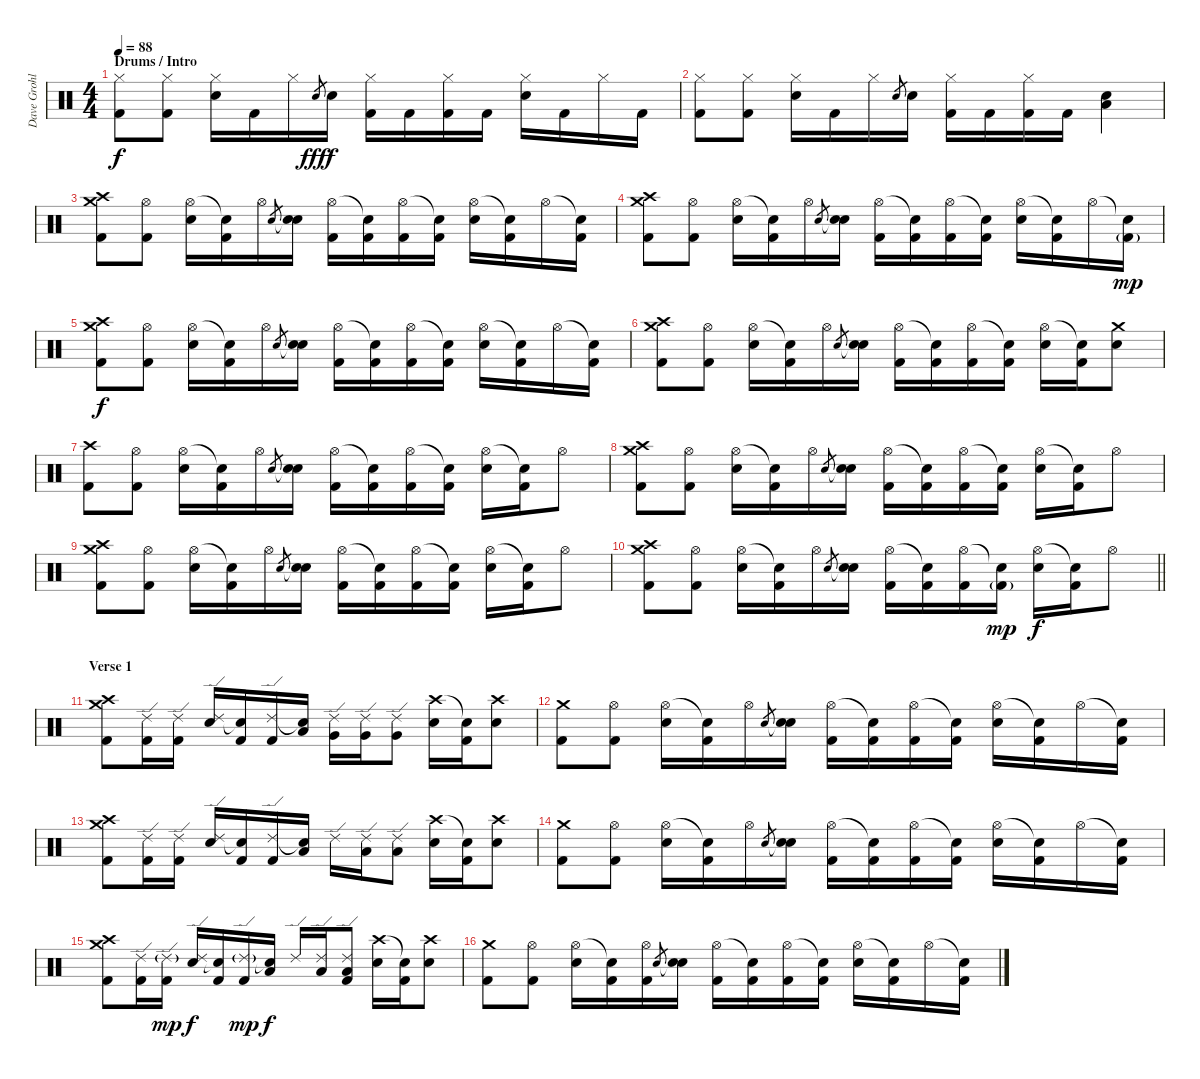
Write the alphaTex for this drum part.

\track ("Dave Grohl - Drums" "Dave Grohl") {instrument percussion}
\staff {score}
\articulation defaults
\ts (4 4)
\section ("" "Drums / Intro")
\tempo 88
\clef neutral
\ks c
("Hi-Hat (closed)" "Kick (hit) 2").8{dy f} ("Hi-Hat (closed)" "Kick (hit) 2").8 ("Hi-Hat (closed)" "Electric Snare (hit)").16 "Kick (hit) 2".16 "Hi-Hat (closed)".16 "Electric Snare (hit)".8{gr dy fff} "Electric Snare (hit)".16{dy f} ("Hi-Hat (closed)" "Kick (hit) 2").16 "Kick (hit) 2".16 ("Hi-Hat (closed)" "Kick (hit) 2").16 "Kick (hit) 2".16 ("Hi-Hat (closed)" "Electric Snare (hit)").16 "Kick (hit) 2".16 "Hi-Hat (closed)".16 "Kick (hit) 2".16 |
("Hi-Hat (closed)" "Kick (hit) 2").8 ("Hi-Hat (closed)" "Kick (hit) 2").8 ("Hi-Hat (closed)" "Electric Snare (hit)").16 "Kick (hit) 2".16 "Hi-Hat (closed)".16 "Electric Snare (hit)".8{gr} "Electric Snare (hit)".16 ("Hi-Hat (closed)" "Kick (hit) 2").16 "Kick (hit) 2".16 ("Hi-Hat (closed)" "Kick (hit) 2").16 "Kick (hit) 2".16 ("Low Floor Tom (hit)" "Electric Snare (hit)").4 |
("Crash high (hit)" "Crash medium (hit)" "Kick (hit) 2").8 ("Hi-Hat (open)" "Kick (hit) 2").8 ("Hi-Hat (open)" "Electric Snare (hit)").16 ("Snare (hit)"{t} "Kick (hit) 2").16 "Hi-Hat (open)".16 "Electric Snare (hit)".8{gr} ("Snare (hit)"{t} "Electric Snare (hit)").16 ("Hi-Hat (open)" "Kick (hit) 2").16 ("Snare (hit)"{t} "Kick (hit) 2").16 ("Hi-Hat (open)" "Kick (hit) 2").16 ("Snare (hit)"{t} "Kick (hit) 2").16 ("Hi-Hat (open)" "Electric Snare (hit)").16 ("Snare (hit)"{t} "Kick (hit) 2").16 "Hi-Hat (open)".16 ("Snare (hit)"{t} "Kick (hit) 2").16 |
("Crash high (hit)" "Crash medium (hit)" "Kick (hit) 2").8 ("Hi-Hat (open)" "Kick (hit) 2").8 ("Hi-Hat (open)" "Electric Snare (hit)").16 ("Snare (hit)"{t} "Kick (hit) 2").16 "Hi-Hat (open)".16 "Electric Snare (hit)".8{gr} ("Snare (hit)"{t} "Electric Snare (hit)").16 ("Hi-Hat (open)" "Kick (hit) 2").16 ("Snare (hit)"{t} "Kick (hit) 2").16 ("Hi-Hat (open)" "Kick (hit) 2").16 ("Snare (hit)"{t} "Kick (hit) 2").16 ("Hi-Hat (open)" "Electric Snare (hit)").16 ("Snare (hit)"{t} "Kick (hit) 2").16 "Hi-Hat (open)".16 ("Snare (hit)"{t} "Kick (hit) 2"{g}).16{dy mp} |
("Crash high (hit)" "Crash medium (hit)" "Kick (hit) 2").8{dy f} ("Hi-Hat (open)" "Kick (hit) 2").8 ("Hi-Hat (open)" "Electric Snare (hit)").16 ("Snare (hit)"{t} "Kick (hit) 2").16 "Hi-Hat (open)".16 "Electric Snare (hit)".8{gr} ("Snare (hit)"{t} "Electric Snare (hit)").16 ("Hi-Hat (open)" "Kick (hit) 2").16 ("Snare (hit)"{t} "Kick (hit) 2").16 ("Hi-Hat (open)" "Kick (hit) 2").16 ("Snare (hit)"{t} "Kick (hit) 2").16 ("Hi-Hat (open)" "Electric Snare (hit)").16 ("Snare (hit)"{t} "Kick (hit) 2").16 "Hi-Hat (open)".16 ("Snare (hit)"{t} "Kick (hit) 2").16 |
("Crash high (hit)" "Crash medium (hit)" "Kick (hit) 2").8 ("Hi-Hat (open)" "Kick (hit) 2").8 ("Hi-Hat (open)" "Electric Snare (hit)").16 ("Snare (hit)"{t} "Kick (hit) 2").16 "Hi-Hat (open)".16 "Electric Snare (hit)".8{gr} ("Snare (hit)"{t} "Electric Snare (hit)").16 ("Hi-Hat (open)" "Kick (hit) 2").16 ("Snare (hit)"{t} "Kick (hit) 2").16 ("Hi-Hat (open)" "Kick (hit) 2").16 ("Snare (hit)"{t} "Kick (hit) 2").16 ("Hi-Hat (open)" "Electric Snare (hit)").16 ("Snare (hit)"{t} "Kick (hit) 2").16 ("Crash medium (hit)" "Electric Snare (hit)").8 |
("Crash high (hit)" "Kick (hit) 2").8 ("Hi-Hat (open)" "Kick (hit) 2").8 ("Hi-Hat (open)" "Electric Snare (hit)").16 ("Snare (hit)"{t} "Kick (hit) 2").16 "Hi-Hat (open)".16 "Electric Snare (hit)".8{gr} ("Snare (hit)"{t} "Electric Snare (hit)").16 ("Hi-Hat (open)" "Kick (hit) 2").16 ("Snare (hit)"{t} "Kick (hit) 2").16 ("Hi-Hat (open)" "Kick (hit) 2").16 ("Snare (hit)"{t} "Kick (hit) 2").16 ("Hi-Hat (open)" "Electric Snare (hit)").16 ("Snare (hit)"{t} "Kick (hit) 2").16 "Hi-Hat (open)".8 |
("Crash high (hit)" "Crash medium (hit)" "Kick (hit) 2").8 ("Hi-Hat (open)" "Kick (hit) 2").8 ("Hi-Hat (open)" "Electric Snare (hit)").16 ("Snare (hit)"{t} "Kick (hit) 2").16 "Hi-Hat (open)".16 "Electric Snare (hit)".8{gr} ("Snare (hit)"{t} "Electric Snare (hit)").16 ("Hi-Hat (open)" "Kick (hit) 2").16 ("Snare (hit)"{t} "Kick (hit) 2").16 ("Hi-Hat (open)" "Kick (hit) 2").16 ("Snare (hit)"{t} "Kick (hit) 2").16 ("Hi-Hat (open)" "Electric Snare (hit)").16 ("Snare (hit)"{t} "Kick (hit) 2").16 "Hi-Hat (open)".8 |
("Crash high (hit)" "Crash medium (hit)" "Kick (hit) 2").8 ("Hi-Hat (open)" "Kick (hit) 2").8 ("Hi-Hat (open)" "Electric Snare (hit)").16 ("Snare (hit)"{t} "Kick (hit) 2").16 "Hi-Hat (open)".16 "Electric Snare (hit)".8{gr} ("Snare (hit)"{t} "Electric Snare (hit)").16 ("Hi-Hat (open)" "Kick (hit) 2").16 ("Snare (hit)"{t} "Kick (hit) 2").16 ("Hi-Hat (open)" "Kick (hit) 2").16 ("Snare (hit)"{t} "Kick (hit) 2").16 ("Hi-Hat (open)" "Electric Snare (hit)").16 ("Snare (hit)"{t} "Kick (hit) 2").16 "Hi-Hat (open)".8 |
\barLineRight lightlight
("Crash high (hit)" "Crash medium (hit)" "Kick (hit) 2").8 ("Hi-Hat (open)" "Kick (hit) 2").8 ("Hi-Hat (open)" "Electric Snare (hit)").16 ("Snare (hit)"{t} "Kick (hit) 2").16 "Hi-Hat (open)".16 "Electric Snare (hit)".8{gr} ("Snare (hit)"{t} "Electric Snare (hit)").16 ("Hi-Hat (open)" "Kick (hit) 2").16 ("Snare (hit)"{t} "Kick (hit) 2").16 ("Hi-Hat (open)" "Kick (hit) 2").16 ("Snare (hit)"{t} "Kick (hit) 2"{g}).16{dy mp} ("Hi-Hat (open)" "Electric Snare (hit)").16{dy f} ("Snare (hit)"{t} "Kick (hit) 2").16 "Hi-Hat (open)".8 |
\section ("" "Verse 1")
("Crash high (hit)" "Crash medium (hit)" "Kick (hit) 2").8 ("Ride (edge) 2" "Kick (hit) 2").16 ("Ride (edge) 2" "Kick (hit) 2").16 ("Ride (edge) 2" "Electric Snare (hit)").16 ("Snare (hit)"{t} "Kick (hit) 2").16 ("Ride (edge) 2" "Kick (hit) 2").16 ("Snare (hit)"{t} "Low Tom (hit)").16 ("Ride (edge) 2" "Very Low Tom (hit)").16 ("Ride (edge) 2" "Very Low Tom (hit)").16 ("Ride (edge) 2" "Very Low Tom (hit)").8 ("Crash high (hit)" "Electric Snare (hit)").16 ("Snare (hit)"{t} "Kick (hit) 2").16 ("Crash high (hit)" "Electric Snare (hit)").8 |
("Crash medium (hit)" "Kick (hit) 2").8 ("Hi-Hat (open)" "Kick (hit) 2").8 ("Hi-Hat (open)" "Electric Snare (hit)").16 ("Snare (hit)"{t} "Kick (hit) 2").16 "Hi-Hat (open)".16 "Electric Snare (hit)".8{gr} ("Snare (hit)"{t} "Electric Snare (hit)").16 ("Hi-Hat (open)" "Kick (hit) 2").16 ("Snare (hit)"{t} "Kick (hit) 2").16 ("Hi-Hat (open)" "Kick (hit) 2").16 ("Snare (hit)"{t} "Kick (hit) 2").16 ("Hi-Hat (open)" "Electric Snare (hit)").16 ("Snare (hit)"{t} "Kick (hit) 2").16 "Hi-Hat (open)".16 ("Snare (hit)"{t} "Kick (hit) 2").16 |
("Crash high (hit)" "Crash medium (hit)" "Kick (hit) 2").8 ("Ride (edge) 2" "Kick (hit) 2").16 ("Ride (edge) 2" "Kick (hit) 2").16 ("Ride (edge) 2" "Electric Snare (hit)").16 ("Snare (hit)"{t} "Kick (hit) 2").16 ("Ride (edge) 2" "Kick (hit) 2").16 ("Snare (hit)"{t} "Low Tom (hit)").16 "Ride (edge) 2".16 ("Ride (edge) 2" "Low Floor Tom (hit)").16 ("Ride (edge) 2" "Low Floor Tom (hit)").8 ("Crash high (hit)" "Electric Snare (hit)").16 ("Snare (hit)"{t} "Kick (hit) 2").16 ("Crash high (hit)" "Electric Snare (hit)").8 |
("Crash medium (hit)" "Kick (hit) 2").8 ("Hi-Hat (open)" "Kick (hit) 2").8 ("Hi-Hat (open)" "Electric Snare (hit)").16 ("Snare (hit)"{t} "Kick (hit) 2").16 "Hi-Hat (open)".16 "Electric Snare (hit)".8{gr} ("Snare (hit)"{t} "Electric Snare (hit)").16 ("Hi-Hat (open)" "Kick (hit) 2").16 ("Snare (hit)"{t} "Kick (hit) 2").16 ("Hi-Hat (open)" "Kick (hit) 2").16 ("Snare (hit)"{t} "Kick (hit) 2").16 ("Hi-Hat (open)" "Electric Snare (hit)").16 ("Snare (hit)"{t} "Kick (hit) 2").16 "Hi-Hat (open)".16 ("Snare (hit)"{t} "Kick (hit) 2").16 |
("Crash high (hit)" "Crash medium (hit)" "Kick (hit) 2").8 ("Ride (edge) 2" "Kick (hit) 2").16 ("Ride (edge) 2"{g} "Kick (hit) 2").16{dy mp} ("Ride (edge) 2" "Electric Snare (hit)").16{dy f} ("Snare (hit)"{t} "Kick (hit) 2").16 ("Ride (edge) 2"{g} "Kick (hit) 2").16{dy mp} ("Snare (hit)"{t} "Low Tom (hit)").16{dy f} "Ride (edge) 2".16 ("Ride (edge) 2" "Low Floor Tom (hit)").16 ("Ride (edge) 2" "Low Floor Tom (hit)" "Kick (hit) 2").8 ("Crash high (hit)" "Electric Snare (hit)").16 ("Snare (hit)"{t} "Kick (hit) 2").16 ("Crash high (hit)" "Electric Snare (hit)").8 |
("Crash medium (hit)" "Kick (hit) 2").8 ("Hi-Hat (open)" "Kick (hit) 2").8 ("Hi-Hat (open)" "Electric Snare (hit)").16 ("Snare (hit)"{t} "Kick (hit) 2").16 ("Hi-Hat (open)" "Kick (hit) 2").16 "Electric Snare (hit)".8{gr} ("Snare (hit)"{t} "Electric Snare (hit)").16 ("Hi-Hat (open)" "Kick (hit) 2").16 ("Snare (hit)"{t} "Kick (hit) 2").16 ("Hi-Hat (open)" "Kick (hit) 2").16 ("Snare (hit)"{t} "Kick (hit) 2").16 ("Hi-Hat (open)" "Electric Snare (hit)").16 ("Snare (hit)"{t} "Kick (hit) 2").16 "Hi-Hat (open)".16 ("Snare (hit)"{t} "Kick (hit) 2").16
